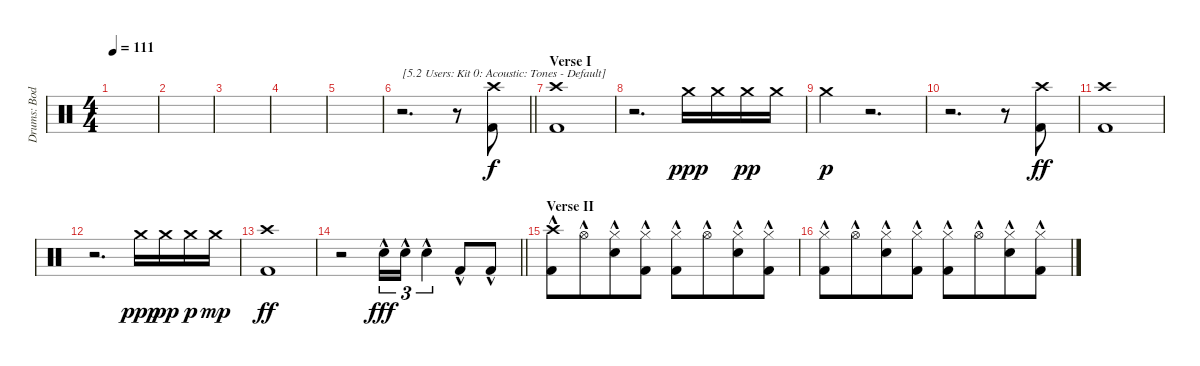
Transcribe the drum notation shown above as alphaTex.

\track ("Drums: Bodo" "Drums: Bod") {instrument percussion}
\staff {score}
\articulation defaults
\ts (4 4)
\tempo 111
\clef neutral
\ks c
|
|
|
|
|
\barLineRight lightlight
r.2{d txt "[5.2 Users: Kit 0: Acoustic: Tones - Default]"} r.8 ("Crash high (hit)" "Kick (hit) 2").8 |
\section ("" "Verse I")
("Crash high (hit)" "Kick (hit) 2").1 |
r.2{d} "Crash medium (hit)".16{dy ppp} "Crash medium (hit)".16 "Crash medium (hit)".16{dy pp} "Crash medium (hit)".16 |
"Crash medium (hit)".4{dy p} r.2{d} |
r.2{d} r.8 ("Crash high (hit)" "Kick (hit) 2").8{dy ff} |
("Crash high (hit)" "Kick (hit) 2").1 |
r.2{d} "Crash medium (hit)".16{dy ppp} "Crash medium (hit)".16{dy pp} "Crash medium (hit)".16{dy p} "Crash medium (hit)".16{dy mp} |
("Crash high (hit)" "Kick (hit) 2").1{dy ff} |
\barLineRight lightlight
r.2 "Electric Snare (hit)"{hac}.16{tu (3 2) dy fff} "Electric Snare (hit)"{hac}.16{tu (3 2)} "Electric Snare (hit)"{hac}.4{tu (3 2)} "Kick (hit) 2"{hac}.8 "Kick (hit) 2"{hac}.8 |
\section ("" "Verse II")
("Crash high (hit)"{hac} "Kick (hit) 2"{hac}).8 "Hi-Hat (open)"{hac}.8{beam merge} ("Hi-Hat (closed)"{hac} "Electric Snare (hit)"{hac}).8 ("Hi-Hat (closed)"{hac} "Kick (hit) 2"{hac}).8 ("Hi-Hat (closed)"{hac} "Kick (hit) 2"{hac}).8 "Hi-Hat (open)"{hac}.8{beam merge} ("Hi-Hat (closed)"{hac} "Electric Snare (hit)"{hac}).8 ("Hi-Hat (closed)"{hac} "Kick (hit) 2"{hac}).8 |
("Hi-Hat (closed)"{hac} "Kick (hit) 2"{hac}).8 "Hi-Hat (open)"{hac}.8{beam merge} ("Hi-Hat (closed)"{hac} "Electric Snare (hit)"{hac}).8 ("Hi-Hat (closed)"{hac} "Kick (hit) 2"{hac}).8 ("Hi-Hat (closed)"{hac} "Kick (hit) 2"{hac}).8 "Hi-Hat (open)"{hac}.8{beam merge} ("Hi-Hat (closed)"{hac} "Electric Snare (hit)"{hac}).8 ("Hi-Hat (closed)"{hac} "Kick (hit) 2"{hac}).8
